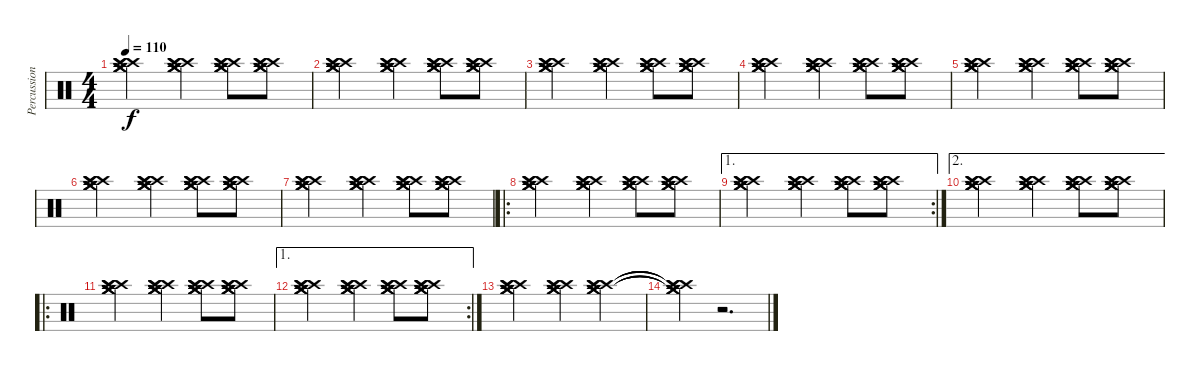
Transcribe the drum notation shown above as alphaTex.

\track ("Percussion 2" "Percussion") {instrument percussion}
\staff {score}
\articulation defaults
\ts (4 4)
\tempo 110
\clef neutral
\ks c
("Crash medium (hit)" "Crash medium (hit)" "Crash medium (hit)" "Crash high (hit)" "Crash high (hit)" "Crash high (hit)").2{dy f} ("Crash medium (hit)" "Crash medium (hit)" "Crash medium (hit)" "Crash high (hit)" "Crash high (hit)" "Crash high (hit)").4 ("Crash medium (hit)" "Crash medium (hit)" "Crash medium (hit)" "Crash high (hit)" "Crash high (hit)" "Crash high (hit)").8 ("Crash medium (hit)" "Crash medium (hit)" "Crash medium (hit)" "Crash high (hit)" "Crash high (hit)" "Crash high (hit)").8 |
("Crash medium (hit)" "Crash medium (hit)" "Crash medium (hit)" "Crash high (hit)" "Crash high (hit)" "Crash high (hit)").2 ("Crash medium (hit)" "Crash medium (hit)" "Crash medium (hit)" "Crash high (hit)" "Crash high (hit)" "Crash high (hit)").4 ("Crash medium (hit)" "Crash medium (hit)" "Crash medium (hit)" "Crash high (hit)" "Crash high (hit)" "Crash high (hit)").8 ("Crash medium (hit)" "Crash medium (hit)" "Crash medium (hit)" "Crash high (hit)" "Crash high (hit)" "Crash high (hit)").8 |
("Crash medium (hit)" "Crash medium (hit)" "Crash medium (hit)" "Crash high (hit)" "Crash high (hit)" "Crash high (hit)").2 ("Crash medium (hit)" "Crash medium (hit)" "Crash medium (hit)" "Crash high (hit)" "Crash high (hit)" "Crash high (hit)").4 ("Crash medium (hit)" "Crash medium (hit)" "Crash medium (hit)" "Crash high (hit)" "Crash high (hit)" "Crash high (hit)").8 ("Crash medium (hit)" "Crash medium (hit)" "Crash medium (hit)" "Crash high (hit)" "Crash high (hit)" "Crash high (hit)").8 |
("Crash medium (hit)" "Crash medium (hit)" "Crash medium (hit)" "Crash high (hit)" "Crash high (hit)" "Crash high (hit)").2 ("Crash medium (hit)" "Crash medium (hit)" "Crash medium (hit)" "Crash high (hit)" "Crash high (hit)" "Crash high (hit)").4 ("Crash medium (hit)" "Crash medium (hit)" "Crash medium (hit)" "Crash high (hit)" "Crash high (hit)" "Crash high (hit)").8 ("Crash medium (hit)" "Crash medium (hit)" "Crash medium (hit)" "Crash high (hit)" "Crash high (hit)" "Crash high (hit)").8 |
("Crash medium (hit)" "Crash medium (hit)" "Crash medium (hit)" "Crash high (hit)" "Crash high (hit)" "Crash high (hit)").2 ("Crash medium (hit)" "Crash medium (hit)" "Crash medium (hit)" "Crash high (hit)" "Crash high (hit)" "Crash high (hit)").4 ("Crash medium (hit)" "Crash medium (hit)" "Crash medium (hit)" "Crash high (hit)" "Crash high (hit)" "Crash high (hit)").8 ("Crash medium (hit)" "Crash medium (hit)" "Crash medium (hit)" "Crash high (hit)" "Crash high (hit)" "Crash high (hit)").8 |
("Crash medium (hit)" "Crash medium (hit)" "Crash medium (hit)" "Crash high (hit)" "Crash high (hit)" "Crash high (hit)").2 ("Crash medium (hit)" "Crash medium (hit)" "Crash medium (hit)" "Crash high (hit)" "Crash high (hit)" "Crash high (hit)").4 ("Crash medium (hit)" "Crash medium (hit)" "Crash medium (hit)" "Crash high (hit)" "Crash high (hit)" "Crash high (hit)").8 ("Crash medium (hit)" "Crash medium (hit)" "Crash medium (hit)" "Crash high (hit)" "Crash high (hit)" "Crash high (hit)").8 |
("Crash medium (hit)" "Crash medium (hit)" "Crash medium (hit)" "Crash high (hit)" "Crash high (hit)" "Crash high (hit)").2 ("Crash medium (hit)" "Crash medium (hit)" "Crash medium (hit)" "Crash high (hit)" "Crash high (hit)" "Crash high (hit)").4 ("Crash medium (hit)" "Crash medium (hit)" "Crash medium (hit)" "Crash high (hit)" "Crash high (hit)" "Crash high (hit)").8 ("Crash medium (hit)" "Crash medium (hit)" "Crash medium (hit)" "Crash high (hit)" "Crash high (hit)" "Crash high (hit)").8 |
\ro
("Crash medium (hit)" "Crash medium (hit)" "Crash medium (hit)" "Crash high (hit)" "Crash high (hit)" "Crash high (hit)").2 ("Crash medium (hit)" "Crash medium (hit)" "Crash medium (hit)" "Crash high (hit)" "Crash high (hit)" "Crash high (hit)").4 ("Crash medium (hit)" "Crash medium (hit)" "Crash medium (hit)" "Crash high (hit)" "Crash high (hit)" "Crash high (hit)").8 ("Crash medium (hit)" "Crash medium (hit)" "Crash medium (hit)" "Crash high (hit)" "Crash high (hit)" "Crash high (hit)").8 |
\ae 1
\rc 2
("Crash medium (hit)" "Crash medium (hit)" "Crash medium (hit)" "Crash high (hit)" "Crash high (hit)" "Crash high (hit)").2 ("Crash medium (hit)" "Crash medium (hit)" "Crash medium (hit)" "Crash high (hit)" "Crash high (hit)" "Crash high (hit)").4 ("Crash medium (hit)" "Crash medium (hit)" "Crash medium (hit)" "Crash high (hit)" "Crash high (hit)" "Crash high (hit)").8 ("Crash medium (hit)" "Crash medium (hit)" "Crash medium (hit)" "Crash high (hit)" "Crash high (hit)" "Crash high (hit)").8 |
\ae 2
("Crash medium (hit)" "Crash medium (hit)" "Crash medium (hit)" "Crash high (hit)" "Crash high (hit)" "Crash high (hit)").2 ("Crash medium (hit)" "Crash medium (hit)" "Crash medium (hit)" "Crash high (hit)" "Crash high (hit)" "Crash high (hit)").4 ("Crash medium (hit)" "Crash medium (hit)" "Crash medium (hit)" "Crash high (hit)" "Crash high (hit)" "Crash high (hit)").8 ("Crash medium (hit)" "Crash medium (hit)" "Crash medium (hit)" "Crash high (hit)" "Crash high (hit)" "Crash high (hit)").8 |
\ro
("Crash medium (hit)" "Crash medium (hit)" "Crash medium (hit)" "Crash high (hit)" "Crash high (hit)" "Crash high (hit)").2 ("Crash medium (hit)" "Crash medium (hit)" "Crash medium (hit)" "Crash high (hit)" "Crash high (hit)" "Crash high (hit)").4 ("Crash medium (hit)" "Crash medium (hit)" "Crash medium (hit)" "Crash high (hit)" "Crash high (hit)" "Crash high (hit)").8 ("Crash medium (hit)" "Crash medium (hit)" "Crash medium (hit)" "Crash high (hit)" "Crash high (hit)" "Crash high (hit)").8 |
\ae 1
\rc 2
("Crash medium (hit)" "Crash medium (hit)" "Crash medium (hit)" "Crash high (hit)" "Crash high (hit)" "Crash high (hit)").2 ("Crash medium (hit)" "Crash medium (hit)" "Crash medium (hit)" "Crash high (hit)" "Crash high (hit)" "Crash high (hit)").4 ("Crash medium (hit)" "Crash medium (hit)" "Crash medium (hit)" "Crash high (hit)" "Crash high (hit)" "Crash high (hit)").8 ("Crash medium (hit)" "Crash medium (hit)" "Crash medium (hit)" "Crash high (hit)" "Crash high (hit)" "Crash high (hit)").8 |
("Crash medium (hit)" "Crash medium (hit)" "Crash medium (hit)" "Crash high (hit)" "Crash high (hit)" "Crash high (hit)").2 ("Crash medium (hit)" "Crash medium (hit)" "Crash medium (hit)" "Crash high (hit)" "Crash high (hit)" "Crash high (hit)").4 ("Crash medium (hit)" "Crash medium (hit)" "Crash medium (hit)" "Crash high (hit)" "Crash high (hit)" "Crash high (hit)").4 |
("Crash medium (hit)"{t} "Crash medium (hit)"{t} "Crash medium (hit)"{t} "Crash high (hit)"{t} "Crash high (hit)"{t} "Crash high (hit)"{t}).4 r.2{d}
